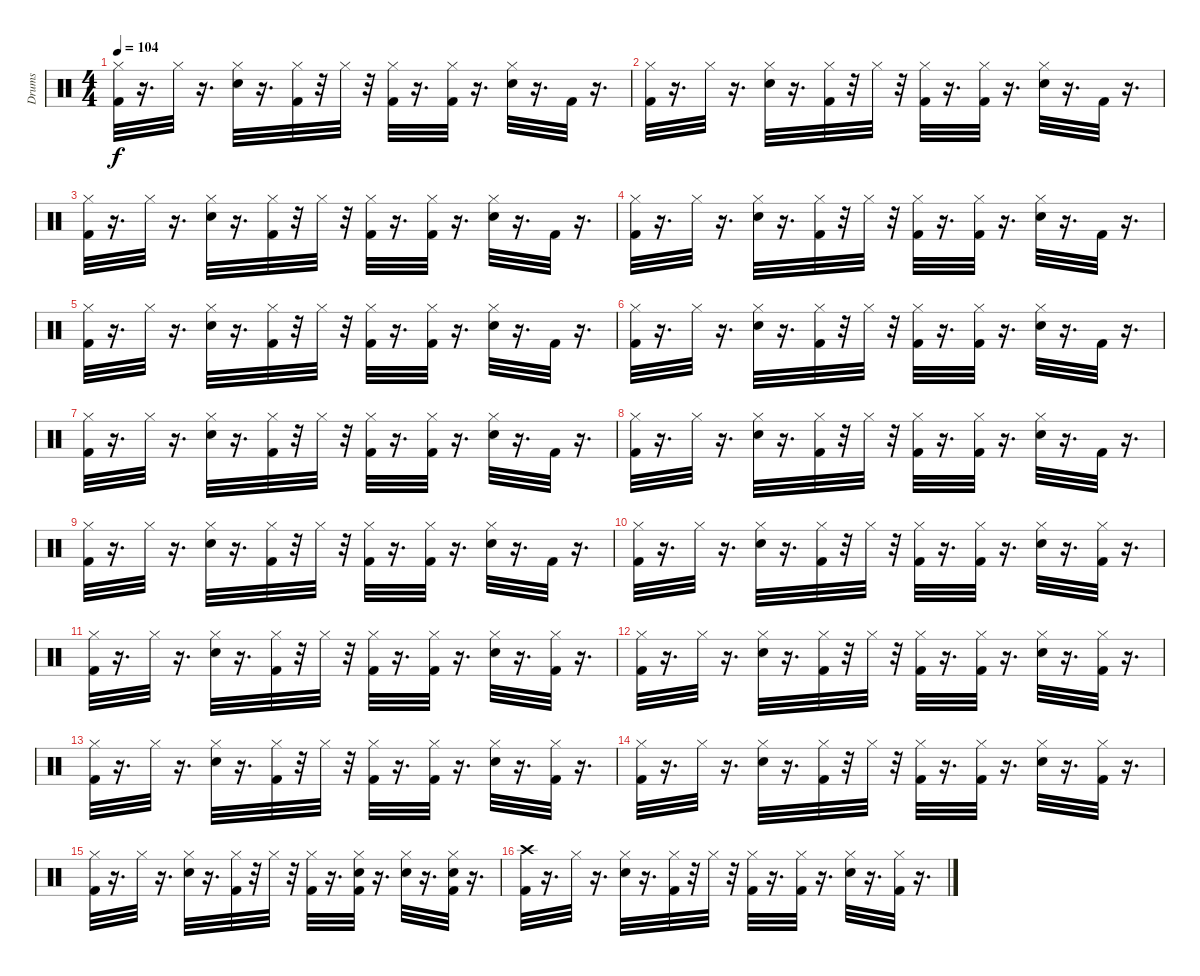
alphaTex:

\track ("Drums" "Drums") {instrument percussion}
\staff {score}
\articulation defaults
\ts (4 4)
\tempo 104
\clef neutral
\ks c
("Hi-Hat (closed)" "Kick (hit) 2").32{dy f} r.16{d} "Hi-Hat (closed)".32 r.16{d} ("Hi-Hat (closed)" "Snare (hit) 2").32 r.16{d} ("Hi-Hat (closed)" "Kick (hit) 2").32 r.32 "Hi-Hat (closed)".32 r.32 ("Hi-Hat (closed)" "Kick (hit) 2").32 r.16{d} ("Hi-Hat (closed)" "Kick (hit) 2").32 r.16{d} ("Hi-Hat (closed)" "Snare (hit) 2").32 r.16{d} "Kick (hit) 2".32 r.16{d} |
("Hi-Hat (closed)" "Kick (hit) 2").32 r.16{d} "Hi-Hat (closed)".32 r.16{d} ("Hi-Hat (closed)" "Snare (hit) 2").32 r.16{d} ("Hi-Hat (closed)" "Kick (hit) 2").32 r.32 "Hi-Hat (closed)".32 r.32 ("Hi-Hat (closed)" "Kick (hit) 2").32 r.16{d} ("Hi-Hat (closed)" "Kick (hit) 2").32 r.16{d} ("Hi-Hat (closed)" "Snare (hit) 2").32 r.16{d} "Kick (hit) 2".32 r.16{d} |
("Hi-Hat (closed)" "Kick (hit) 2").32 r.16{d} "Hi-Hat (closed)".32 r.16{d} ("Hi-Hat (closed)" "Snare (hit) 2").32 r.16{d} ("Hi-Hat (closed)" "Kick (hit) 2").32 r.32 "Hi-Hat (closed)".32 r.32 ("Hi-Hat (closed)" "Kick (hit) 2").32 r.16{d} ("Hi-Hat (closed)" "Kick (hit) 2").32 r.16{d} ("Hi-Hat (closed)" "Snare (hit) 2").32 r.16{d} "Kick (hit) 2".32 r.16{d} |
("Hi-Hat (closed)" "Kick (hit) 2").32 r.16{d} "Hi-Hat (closed)".32 r.16{d} ("Hi-Hat (closed)" "Snare (hit) 2").32 r.16{d} ("Hi-Hat (closed)" "Kick (hit) 2").32 r.32 "Hi-Hat (closed)".32 r.32 ("Hi-Hat (closed)" "Kick (hit) 2").32 r.16{d} ("Hi-Hat (closed)" "Kick (hit) 2").32 r.16{d} ("Hi-Hat (closed)" "Snare (hit) 2").32 r.16{d} "Kick (hit) 2".32 r.16{d} |
("Hi-Hat (closed)" "Kick (hit) 2").32 r.16{d} "Hi-Hat (closed)".32 r.16{d} ("Hi-Hat (closed)" "Snare (hit) 2").32 r.16{d} ("Hi-Hat (closed)" "Kick (hit) 2").32 r.32 "Hi-Hat (closed)".32 r.32 ("Hi-Hat (closed)" "Kick (hit) 2").32 r.16{d} ("Hi-Hat (closed)" "Kick (hit) 2").32 r.16{d} ("Hi-Hat (closed)" "Snare (hit) 2").32 r.16{d} "Kick (hit) 2".32 r.16{d} |
("Hi-Hat (closed)" "Kick (hit) 2").32 r.16{d} "Hi-Hat (closed)".32 r.16{d} ("Hi-Hat (closed)" "Snare (hit) 2").32 r.16{d} ("Hi-Hat (closed)" "Kick (hit) 2").32 r.32 "Hi-Hat (closed)".32 r.32 ("Hi-Hat (closed)" "Kick (hit) 2").32 r.16{d} ("Hi-Hat (closed)" "Kick (hit) 2").32 r.16{d} ("Hi-Hat (closed)" "Snare (hit) 2").32 r.16{d} "Kick (hit) 2".32 r.16{d} |
("Hi-Hat (closed)" "Kick (hit) 2").32 r.16{d} "Hi-Hat (closed)".32 r.16{d} ("Hi-Hat (closed)" "Snare (hit) 2").32 r.16{d} ("Hi-Hat (closed)" "Kick (hit) 2").32 r.32 "Hi-Hat (closed)".32 r.32 ("Hi-Hat (closed)" "Kick (hit) 2").32 r.16{d} ("Hi-Hat (closed)" "Kick (hit) 2").32 r.16{d} ("Hi-Hat (closed)" "Snare (hit) 2").32 r.16{d} "Kick (hit) 2".32 r.16{d} |
("Hi-Hat (closed)" "Kick (hit) 2").32 r.16{d} "Hi-Hat (closed)".32 r.16{d} ("Hi-Hat (closed)" "Snare (hit) 2").32 r.16{d} ("Hi-Hat (closed)" "Kick (hit) 2").32 r.32 "Hi-Hat (closed)".32 r.32 ("Hi-Hat (closed)" "Kick (hit) 2").32 r.16{d} ("Hi-Hat (closed)" "Kick (hit) 2").32 r.16{d} ("Hi-Hat (closed)" "Snare (hit) 2").32 r.16{d} "Kick (hit) 2".32 r.16{d} |
("Hi-Hat (closed)" "Kick (hit) 2").32 r.16{d} "Hi-Hat (closed)".32 r.16{d} ("Hi-Hat (closed)" "Snare (hit) 2").32 r.16{d} ("Hi-Hat (closed)" "Kick (hit) 2").32 r.32 "Hi-Hat (closed)".32 r.32 ("Hi-Hat (closed)" "Kick (hit) 2").32 r.16{d} ("Hi-Hat (closed)" "Kick (hit) 2").32 r.16{d} ("Hi-Hat (closed)" "Snare (hit) 2").32 r.16{d} "Kick (hit) 2".32 r.16{d} |
("Hi-Hat (closed)" "Kick (hit) 2").32 r.16{d} "Hi-Hat (closed)".32 r.16{d} ("Hi-Hat (closed)" "Snare (hit) 2").32 r.16{d} ("Hi-Hat (closed)" "Kick (hit) 2").32 r.32 "Hi-Hat (closed)".32 r.32 ("Hi-Hat (closed)" "Kick (hit) 2").32 r.16{d} ("Hi-Hat (closed)" "Kick (hit) 2").32 r.16{d} ("Hi-Hat (closed)" "Snare (hit) 2").32 r.16{d} ("Hi-Hat (closed)" "Kick (hit) 2").32 r.16{d} |
("Hi-Hat (closed)" "Kick (hit) 2").32 r.16{d} "Hi-Hat (closed)".32 r.16{d} ("Hi-Hat (closed)" "Snare (hit) 2").32 r.16{d} ("Hi-Hat (closed)" "Kick (hit) 2").32 r.32 "Hi-Hat (closed)".32 r.32 ("Hi-Hat (closed)" "Kick (hit) 2").32 r.16{d} ("Hi-Hat (closed)" "Kick (hit) 2").32 r.16{d} ("Hi-Hat (closed)" "Snare (hit) 2").32 r.16{d} ("Hi-Hat (closed)" "Kick (hit) 2").32 r.16{d} |
("Hi-Hat (closed)" "Kick (hit) 2").32 r.16{d} "Hi-Hat (closed)".32 r.16{d} ("Hi-Hat (closed)" "Snare (hit) 2").32 r.16{d} ("Hi-Hat (closed)" "Kick (hit) 2").32 r.32 "Hi-Hat (closed)".32 r.32 ("Hi-Hat (closed)" "Kick (hit) 2").32 r.16{d} ("Hi-Hat (closed)" "Kick (hit) 2").32 r.16{d} ("Hi-Hat (closed)" "Snare (hit) 2").32 r.16{d} ("Hi-Hat (closed)" "Kick (hit) 2").32 r.16{d} |
("Hi-Hat (closed)" "Kick (hit) 2").32 r.16{d} "Hi-Hat (closed)".32 r.16{d} ("Hi-Hat (closed)" "Snare (hit) 2").32 r.16{d} ("Hi-Hat (closed)" "Kick (hit) 2").32 r.32 "Hi-Hat (closed)".32 r.32 ("Hi-Hat (closed)" "Kick (hit) 2").32 r.16{d} ("Hi-Hat (closed)" "Kick (hit) 2").32 r.16{d} ("Hi-Hat (closed)" "Snare (hit) 2").32 r.16{d} ("Hi-Hat (closed)" "Kick (hit) 2").32 r.16{d} |
("Hi-Hat (closed)" "Kick (hit) 2").32{volume 10} r.16{d} "Hi-Hat (closed)".32{volume 10} r.16{d} ("Hi-Hat (closed)" "Snare (hit) 2").32{volume 10} r.16{d} ("Hi-Hat (closed)" "Kick (hit) 2").32{volume 10} r.32 "Hi-Hat (closed)".32 r.32 ("Hi-Hat (closed)" "Kick (hit) 2").32{volume 10} r.16{d} ("Hi-Hat (closed)" "Kick (hit) 2").32{volume 9} r.16{d} ("Hi-Hat (closed)" "Snare (hit) 2").32{volume 9} r.16{d} ("Hi-Hat (closed)" "Kick (hit) 2").32{volume 9} r.16{d} |
("Hi-Hat (closed)" "Kick (hit) 2").32{volume 9} r.16{d} "Hi-Hat (closed)".32{volume 9} r.16{d} ("Hi-Hat (closed)" "Snare (hit) 2").32{volume 9} r.16{d} ("Hi-Hat (closed)" "Kick (hit) 2").32{volume 9} r.32 "Hi-Hat (closed)".32 r.32 ("Hi-Hat (closed)" "Kick (hit) 2").32{volume 8} r.16{d} ("Snare (hit) 2" "Hi-Hat (closed)" "Kick (hit) 2").32{volume 8} r.16{d} ("Hi-Hat (closed)" "Snare (hit) 2").32{volume 8} r.16{d} ("Snare (hit) 2" "Hi-Hat (closed)" "Kick (hit) 2").32{volume 8} r.16{d} |
("Crash high (hit)" "Kick (hit) 2").32{volume 8} r.16{d} "Hi-Hat (closed)".32{volume 8} r.16{d} ("Hi-Hat (closed)" "Snare (hit) 2").32{volume 8} r.16{d} ("Hi-Hat (closed)" "Kick (hit) 2").32{volume 8} r.32 "Hi-Hat (closed)".32 r.32 ("Hi-Hat (closed)" "Kick (hit) 2").32{volume 8} r.16{d} ("Hi-Hat (closed)" "Kick (hit) 2").32{volume 7} r.16{d} ("Hi-Hat (closed)" "Snare (hit) 2").32{volume 7} r.16{d} ("Hi-Hat (closed)" "Kick (hit) 2").32{volume 7} r.16{d}
